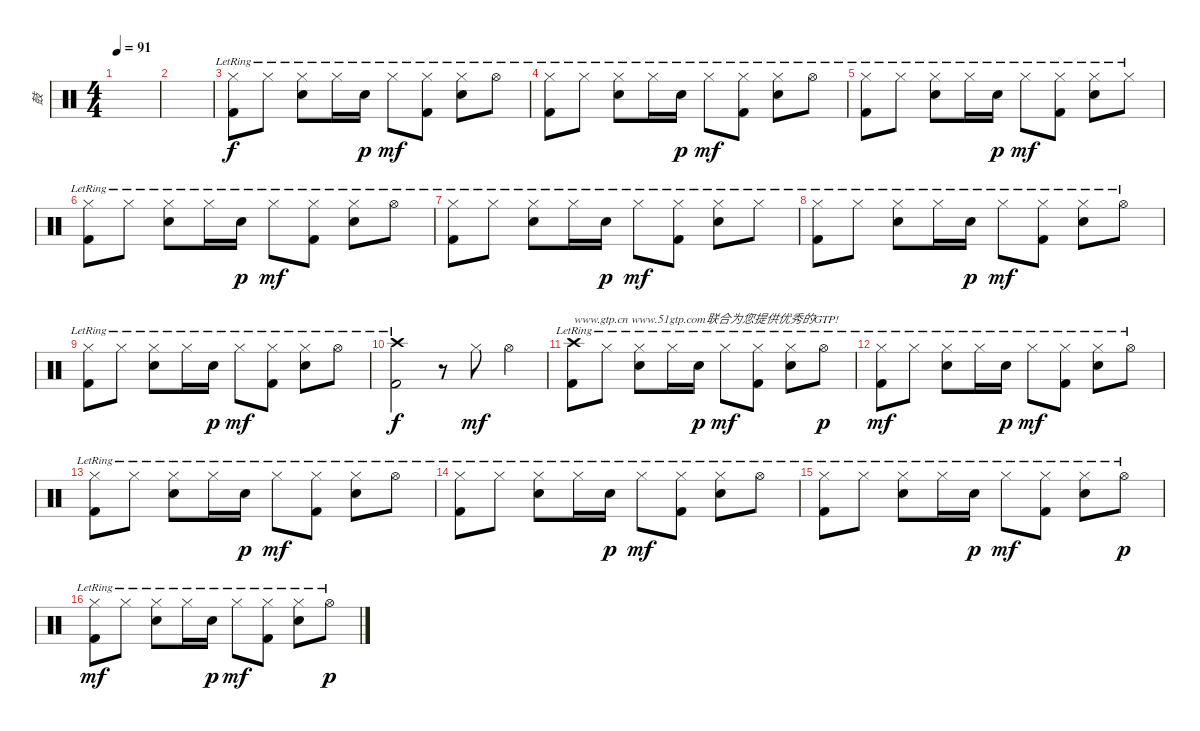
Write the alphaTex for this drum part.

\track ("鼓" "鼓") {instrument percussion}
\staff {score}
\articulation defaults
\ts (4 4)
\tempo 91
\clef neutral
\ks c
|
|
("Hi-Hat (closed)"{lr} "Kick (hit) 2"{lr}).8 "Hi-Hat (closed)"{lr}.8 ("Hi-Hat (closed)"{lr} "Electric Snare (hit)"{lr}).8 "Hi-Hat (closed)"{lr}.16 "Electric Snare (hit)"{lr}.16{dy p} "Hi-Hat (closed)"{lr}.8{dy mf} ("Hi-Hat (closed)"{lr} "Kick (hit) 2"{lr}).8 ("Hi-Hat (closed)"{lr} "Electric Snare (hit)"{lr}).8 "Hi-Hat (open)"{lr}.8 |
("Hi-Hat (closed)"{lr} "Kick (hit) 2"{lr}).8 "Hi-Hat (closed)"{lr}.8 ("Hi-Hat (closed)"{lr} "Electric Snare (hit)"{lr}).8 "Hi-Hat (closed)"{lr}.16 "Electric Snare (hit)"{lr}.16{dy p} "Hi-Hat (closed)"{lr}.8{dy mf} ("Hi-Hat (closed)"{lr} "Kick (hit) 2"{lr}).8 ("Hi-Hat (closed)"{lr} "Electric Snare (hit)"{lr}).8 "Hi-Hat (open)"{lr}.8 |
("Hi-Hat (closed)"{lr} "Kick (hit) 2"{lr}).8 "Hi-Hat (closed)"{lr}.8 ("Hi-Hat (closed)"{lr} "Electric Snare (hit)"{lr}).8 "Hi-Hat (closed)"{lr}.16 "Electric Snare (hit)"{lr}.16{dy p} "Hi-Hat (closed)"{lr}.8{dy mf} ("Hi-Hat (closed)"{lr} "Kick (hit) 2"{lr}).8 ("Hi-Hat (closed)"{lr} "Electric Snare (hit)"{lr}).8 "Hi-Hat (closed)"{lr}.8 |
("Hi-Hat (closed)"{lr} "Kick (hit) 2"{lr}).8 "Hi-Hat (closed)"{lr}.8 ("Hi-Hat (closed)"{lr} "Electric Snare (hit)"{lr}).8 "Hi-Hat (closed)"{lr}.16 "Electric Snare (hit)"{lr}.16{dy p} "Hi-Hat (closed)"{lr}.8{dy mf} ("Hi-Hat (closed)"{lr} "Kick (hit) 2"{lr}).8 ("Hi-Hat (closed)"{lr} "Electric Snare (hit)"{lr}).8 "Hi-Hat (open)"{lr}.8 |
("Hi-Hat (closed)"{lr} "Kick (hit) 2"{lr}).8 "Hi-Hat (closed)"{lr}.8 ("Hi-Hat (closed)"{lr} "Electric Snare (hit)"{lr}).8 "Hi-Hat (closed)"{lr}.16 "Electric Snare (hit)"{lr}.16{dy p} "Hi-Hat (closed)"{lr}.8{dy mf} ("Hi-Hat (closed)"{lr} "Kick (hit) 2"{lr}).8 ("Hi-Hat (closed)"{lr} "Electric Snare (hit)"{lr}).8 "Hi-Hat (closed)"{lr}.8 |
("Hi-Hat (closed)"{lr} "Kick (hit) 2"{lr}).8 "Hi-Hat (closed)"{lr}.8 ("Hi-Hat (closed)"{lr} "Electric Snare (hit)"{lr}).8 "Hi-Hat (closed)"{lr}.16 "Electric Snare (hit)"{lr}.16{dy p} "Hi-Hat (closed)"{lr}.8{dy mf} ("Hi-Hat (closed)"{lr} "Kick (hit) 2"{lr}).8 ("Hi-Hat (closed)"{lr} "Electric Snare (hit)"{lr}).8 "Hi-Hat (open)"{lr}.8 |
("Hi-Hat (closed)"{lr} "Kick (hit) 2"{lr}).8 "Hi-Hat (closed)"{lr}.8 ("Hi-Hat (closed)"{lr} "Electric Snare (hit)"{lr}).8 "Hi-Hat (closed)"{lr}.16 "Electric Snare (hit)"{lr}.16{dy p} "Hi-Hat (closed)"{lr}.8{dy mf} ("Hi-Hat (closed)"{lr} "Kick (hit) 2"{lr}).8 ("Hi-Hat (closed)"{lr} "Electric Snare (hit)"{lr}).8 "Hi-Hat (open)"{lr}.8 |
("Crash high (hit)" "Kick (hit) 2"{lr}).2{dy f} r.8 "Hi-Hat (closed)".8{dy mf} "Hi-Hat (open)".4 |
("Crash high (hit)"{lr} "Kick (hit) 2"{lr}).8{txt "www.gtp.cn www.51gtp.com联合为您提供优秀的GTP!"} "Hi-Hat (closed)"{lr}.8 ("Hi-Hat (closed)"{lr} "Electric Snare (hit)"{lr}).8 "Hi-Hat (closed)"{lr}.16 "Electric Snare (hit)"{lr}.16{dy p} "Hi-Hat (closed)"{lr}.8{dy mf} ("Hi-Hat (closed)"{lr} "Kick (hit) 2"{lr}).8 ("Hi-Hat (closed)"{lr} "Electric Snare (hit)"{lr}).8 "Hi-Hat (open)"{lr}.8{dy p} |
("Hi-Hat (closed)"{lr} "Kick (hit) 2"{lr}).8{dy mf} "Hi-Hat (closed)"{lr}.8 ("Hi-Hat (closed)"{lr} "Electric Snare (hit)"{lr}).8 "Hi-Hat (closed)"{lr}.16 "Electric Snare (hit)"{lr}.16{dy p} "Hi-Hat (closed)"{lr}.8{dy mf} ("Hi-Hat (closed)"{lr} "Kick (hit) 2"{lr}).8 ("Hi-Hat (closed)"{lr} "Electric Snare (hit)"{lr}).8 "Hi-Hat (open)"{lr}.8 |
("Hi-Hat (closed)"{lr} "Kick (hit) 2"{lr}).8 "Hi-Hat (closed)"{lr}.8 ("Hi-Hat (closed)"{lr} "Electric Snare (hit)"{lr}).8 "Hi-Hat (closed)"{lr}.16 "Electric Snare (hit)"{lr}.16{dy p} "Hi-Hat (closed)"{lr}.8{dy mf} ("Hi-Hat (closed)"{lr} "Kick (hit) 2"{lr}).8 ("Hi-Hat (closed)"{lr} "Electric Snare (hit)"{lr}).8 "Hi-Hat (open)"{lr}.8 |
("Hi-Hat (closed)"{lr} "Kick (hit) 2"{lr}).8 "Hi-Hat (closed)"{lr}.8 ("Hi-Hat (closed)"{lr} "Electric Snare (hit)"{lr}).8 "Hi-Hat (closed)"{lr}.16 "Electric Snare (hit)"{lr}.16{dy p} "Hi-Hat (closed)"{lr}.8{dy mf} ("Hi-Hat (closed)"{lr} "Kick (hit) 2"{lr}).8 ("Hi-Hat (closed)"{lr} "Electric Snare (hit)"{lr}).8 "Hi-Hat (open)"{lr}.8 |
("Hi-Hat (closed)"{lr} "Kick (hit) 2"{lr}).8 "Hi-Hat (closed)"{lr}.8 ("Hi-Hat (closed)"{lr} "Electric Snare (hit)"{lr}).8 "Hi-Hat (closed)"{lr}.16 "Electric Snare (hit)"{lr}.16{dy p} "Hi-Hat (closed)"{lr}.8{dy mf} ("Hi-Hat (closed)"{lr} "Kick (hit) 2"{lr}).8 ("Hi-Hat (closed)"{lr} "Electric Snare (hit)"{lr}).8 "Hi-Hat (open)"{lr}.8{dy p} |
("Hi-Hat (closed)"{lr} "Kick (hit) 2"{lr}).8{dy mf} "Hi-Hat (closed)"{lr}.8 ("Hi-Hat (closed)"{lr} "Electric Snare (hit)"{lr}).8 "Hi-Hat (closed)"{lr}.16 "Electric Snare (hit)"{lr}.16{dy p} "Hi-Hat (closed)"{lr}.8{dy mf} ("Hi-Hat (closed)"{lr} "Kick (hit) 2"{lr}).8 ("Hi-Hat (closed)"{lr} "Electric Snare (hit)"{lr}).8 "Hi-Hat (open)"{lr}.8{dy p}
